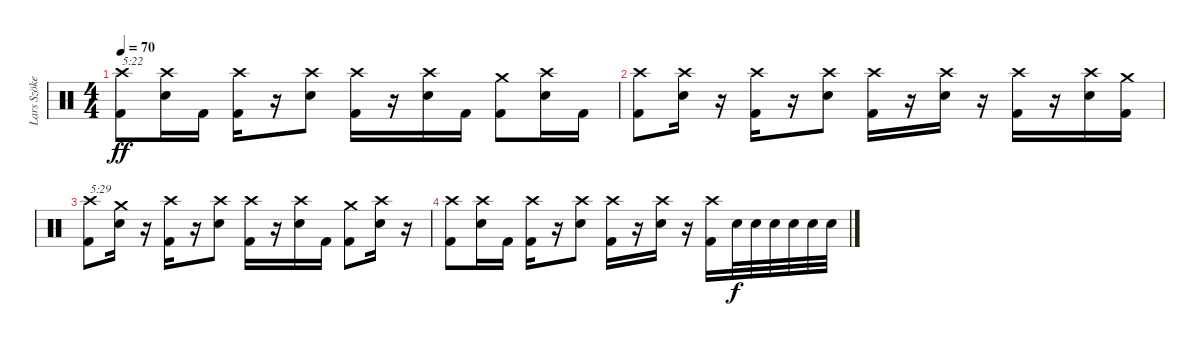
\track ("Lars Szöke (Drums)" "Lars Szöke") {instrument percussion}
\staff {score}
\articulation defaults
\ts (4 4)
\tempo 70
\clef neutral
\ks c
("Kick (hit) 2" "Crash high (hit)").8{txt "5:22" dy ff} ("Electric Snare (hit)" "Crash high (hit)").16 "Kick (hit) 2".16 ("Kick (hit) 2" "Crash high (hit)").16 r.16 ("Electric Snare (hit)" "Crash high (hit)").8 ("Kick (hit) 2" "Crash high (hit)").16 r.16 ("Electric Snare (hit)" "Crash high (hit)").16 "Kick (hit) 2".16 ("Kick (hit) 2" "Crash medium (hit)").8 ("Electric Snare (hit)" "Crash high (hit)").16 "Kick (hit) 2".16 |
("Kick (hit) 2" "Crash high (hit)").8 ("Electric Snare (hit)" "Crash high (hit)").16 r.16 ("Kick (hit) 2" "Crash high (hit)").16 r.16 ("Electric Snare (hit)" "Crash high (hit)").8 ("Kick (hit) 2" "Crash high (hit)").16 r.16 ("Electric Snare (hit)" "Crash high (hit)").16 r.16 ("Kick (hit) 2" "Crash high (hit)").16 r.16 ("Electric Snare (hit)" "Crash high (hit)").16 ("Kick (hit) 2" "Crash medium (hit)").16 |
("Kick (hit) 2" "Crash high (hit)").8{txt "5:29"} ("Electric Snare (hit)" "Crash medium (hit)").16 r.16 ("Kick (hit) 2" "Crash high (hit)").16 r.16 ("Electric Snare (hit)" "Crash high (hit)").8 ("Kick (hit) 2" "Crash high (hit)").16 r.16 ("Electric Snare (hit)" "Crash high (hit)").16 "Kick (hit) 2".16 ("Kick (hit) 2" "Crash medium (hit)").8 ("Electric Snare (hit)" "Crash high (hit)").16 r.16 |
("Kick (hit) 2" "Crash high (hit)").8 ("Electric Snare (hit)" "Crash high (hit)").16 "Kick (hit) 2".16 ("Kick (hit) 2" "Crash high (hit)").16 r.16 ("Electric Snare (hit)" "Crash high (hit)").8 ("Kick (hit) 2" "Crash high (hit)").16 r.16 ("Electric Snare (hit)" "Crash high (hit)").16 r.16 ("Kick (hit) 2" "Crash high (hit)").16 "Electric Snare (hit)".32{dy f} "Electric Snare (hit)".32 "Electric Snare (hit)".32 "Electric Snare (hit)".32 "Electric Snare (hit)".32 "Electric Snare (hit)".32
